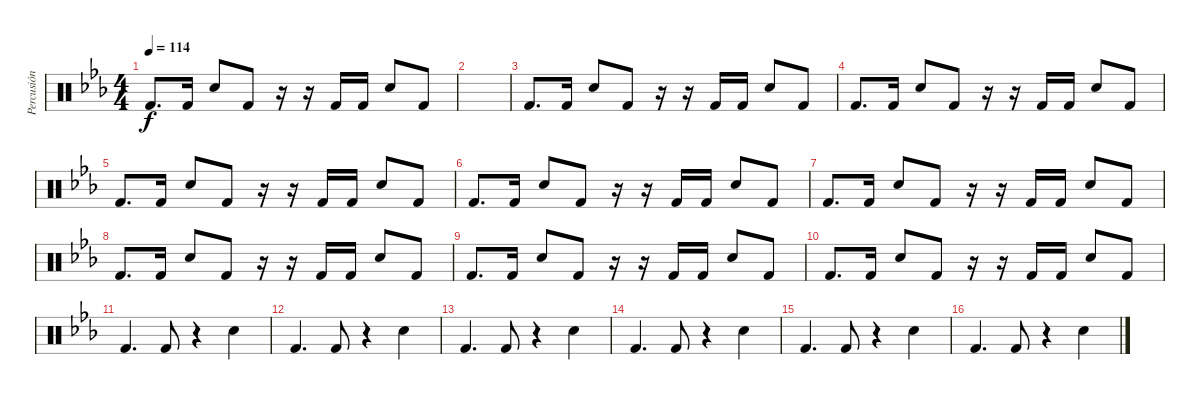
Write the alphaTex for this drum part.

\track ("Percusión" "Percusión") {instrument percussion}
\staff {score}
\articulation defaults
\ts (4 4)
\tempo 114
\clef neutral
\ks eb "Kick (hit) 2".8{d dy f} "Kick (hit) 2".16 "Electric Snare (hit)".8 "Kick (hit) 2".8
r.16 r.16 "Kick (hit) 2".16 "Kick (hit) 2".16 "Electric Snare (hit)".8 "Kick (hit) 2".8 |
|
"Kick (hit) 2".8{d} "Kick (hit) 2".16 "Electric Snare (hit)".8 "Kick (hit) 2".8 r.16 r.16 "Kick (hit) 2".16 "Kick (hit) 2".16 "Electric Snare (hit)".8 "Kick (hit) 2".8 |
"Kick (hit) 2".8{d} "Kick (hit) 2".16 "Electric Snare (hit)".8 "Kick (hit) 2".8 r.16 r.16 "Kick (hit) 2".16 "Kick (hit) 2".16 "Electric Snare (hit)".8 "Kick (hit) 2".8 |
"Kick (hit) 2".8{d} "Kick (hit) 2".16 "Electric Snare (hit)".8 "Kick (hit) 2".8 r.16 r.16 "Kick (hit) 2".16 "Kick (hit) 2".16 "Electric Snare (hit)".8 "Kick (hit) 2".8 |
"Kick (hit) 2".8{d} "Kick (hit) 2".16 "Electric Snare (hit)".8 "Kick (hit) 2".8 r.16 r.16 "Kick (hit) 2".16 "Kick (hit) 2".16 "Electric Snare (hit)".8 "Kick (hit) 2".8 |
"Kick (hit) 2".8{d} "Kick (hit) 2".16 "Electric Snare (hit)".8 "Kick (hit) 2".8 r.16 r.16 "Kick (hit) 2".16 "Kick (hit) 2".16 "Electric Snare (hit)".8 "Kick (hit) 2".8 |
"Kick (hit) 2".8{d} "Kick (hit) 2".16 "Electric Snare (hit)".8 "Kick (hit) 2".8 r.16 r.16 "Kick (hit) 2".16 "Kick (hit) 2".16 "Electric Snare (hit)".8 "Kick (hit) 2".8 |
"Kick (hit) 2".8{d} "Kick (hit) 2".16 "Electric Snare (hit)".8 "Kick (hit) 2".8 r.16 r.16 "Kick (hit) 2".16 "Kick (hit) 2".16 "Electric Snare (hit)".8 "Kick (hit) 2".8 |
"Kick (hit) 2".8{d} "Kick (hit) 2".16 "Electric Snare (hit)".8 "Kick (hit) 2".8 r.16 r.16 "Kick (hit) 2".16 "Kick (hit) 2".16 "Electric Snare (hit)".8 "Kick (hit) 2".8 |
"Kick (hit) 2".4{d} "Kick (hit) 2".8 r.4 "Electric Snare (hit)".4 |
"Kick (hit) 2".4{d} "Kick (hit) 2".8 r.4 "Electric Snare (hit)".4 |
"Kick (hit) 2".4{d} "Kick (hit) 2".8 r.4 "Electric Snare (hit)".4 |
"Kick (hit) 2".4{d} "Kick (hit) 2".8 r.4 "Electric Snare (hit)".4 |
"Kick (hit) 2".4{d} "Kick (hit) 2".8 r.4 "Electric Snare (hit)".4 |
"Kick (hit) 2".4{d} "Kick (hit) 2".8 r.4 "Electric Snare (hit)".4
